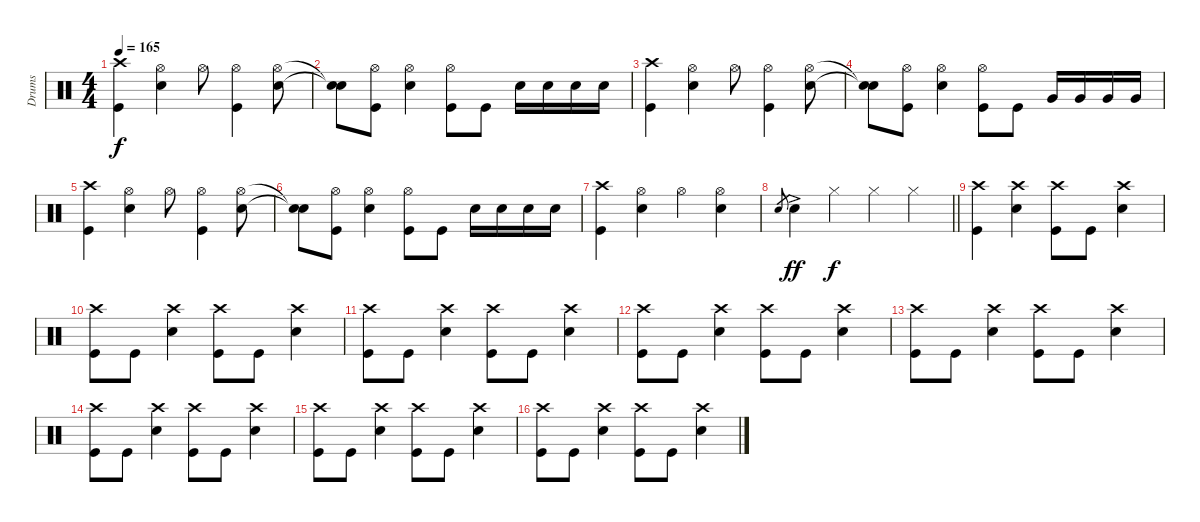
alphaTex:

\track ("Drums" "Drums") {instrument percussion}
\staff {score}
\articulation defaults
\ts (4 4)
\tempo 165
\clef neutral
\ks c
("Crash high (hit)" "Kick (hit)").4{dy f} ("Hi-Hat (open)" "Snare (hit) 2").4 "Hi-Hat (open)".8 ("Hi-Hat (open)" "Kick (hit)").4 ("Hi-Hat (open)" "Snare (hit) 2").8 |
("Snare (hit)"{t} "Snare (hit)"{t}).8 ("Hi-Hat (open)" "Kick (hit)").8 ("Hi-Hat (open)" "Snare (hit) 2").4 ("Hi-Hat (open)" "Kick (hit)").8 "Kick (hit)".8 "Snare (hit) 2".16 "Snare (hit) 2".16 "Snare (hit) 2".16 "Snare (hit) 2".16 |
("Crash high (hit)" "Kick (hit)").4 ("Hi-Hat (open)" "Snare (hit) 2").4 "Hi-Hat (open)".8 ("Hi-Hat (open)" "Kick (hit)").4 ("Hi-Hat (open)" "Snare (hit) 2").8 |
("Snare (hit)"{t} "Snare (hit)"{t}).8 ("Hi-Hat (open)" "Kick (hit)").8 ("Hi-Hat (open)" "Snare (hit) 2").4 ("Hi-Hat (open)" "Kick (hit)").8 "Kick (hit)".8 "Very Low Tom (hit)".16 "Very Low Tom (hit)".16 "Very Low Tom (hit)".16 "Very Low Tom (hit)".16 |
("Crash high (hit)" "Kick (hit)").4 ("Hi-Hat (open)" "Snare (hit) 2").4 "Hi-Hat (open)".8 ("Hi-Hat (open)" "Kick (hit)").4 ("Hi-Hat (open)" "Snare (hit) 2").8 |
("Snare (hit)"{t} "Snare (hit)"{t}).8 ("Hi-Hat (open)" "Kick (hit)").8 ("Hi-Hat (open)" "Snare (hit) 2").4 ("Hi-Hat (open)" "Kick (hit)").8 "Kick (hit)".8 "Snare (hit) 2".16 "Snare (hit) 2".16 "Snare (hit) 2".16 "Snare (hit) 2".16 |
("Crash high (hit)" "Kick (hit)").4 ("Hi-Hat (open)" "Snare (hit) 2").4 "Hi-Hat (open)".4 ("Hi-Hat (open)" "Snare (hit) 2").4 |
\barLineRight lightlight "Snare (hit) 2".8{gr} "Snare (hit) 2"{ac}.4{dy ff} "Hi-Hat (closed)".4{dy f} "Hi-Hat (closed)".4 "Hi-Hat (closed)".4
|
("Crash high (hit)" "Kick (hit)").4 ("Crash high (hit)" "Snare (hit) 2").4 ("Crash high (hit)" "Kick (hit)").8 "Kick (hit)".8 ("Crash high (hit)" "Snare (hit) 2").4 |
("Crash high (hit)" "Kick (hit)").8 "Kick (hit)".8 ("Crash high (hit)" "Snare (hit) 2").4 ("Crash high (hit)" "Kick (hit)").8 "Kick (hit)".8 ("Crash high (hit)" "Snare (hit) 2").4 |
("Crash high (hit)" "Kick (hit)").8 "Kick (hit)".8 ("Crash high (hit)" "Snare (hit) 2").4 ("Crash high (hit)" "Kick (hit)").8 "Kick (hit)".8 ("Crash high (hit)" "Snare (hit) 2").4 |
("Crash high (hit)" "Kick (hit)").8 "Kick (hit)".8 ("Crash high (hit)" "Snare (hit) 2").4 ("Crash high (hit)" "Kick (hit)").8 "Kick (hit)".8 ("Crash high (hit)" "Snare (hit) 2").4 |
("Crash high (hit)" "Kick (hit)").8 "Kick (hit)".8 ("Crash high (hit)" "Snare (hit) 2").4 ("Crash high (hit)" "Kick (hit)").8 "Kick (hit)".8 ("Crash high (hit)" "Snare (hit) 2").4 |
("Crash high (hit)" "Kick (hit)").8 "Kick (hit)".8 ("Crash high (hit)" "Snare (hit) 2").4 ("Crash high (hit)" "Kick (hit)").8 "Kick (hit)".8 ("Crash high (hit)" "Snare (hit) 2").4 |
("Crash high (hit)" "Kick (hit)").8 "Kick (hit)".8 ("Crash high (hit)" "Snare (hit) 2").4 ("Crash high (hit)" "Kick (hit)").8 "Kick (hit)".8 ("Crash high (hit)" "Snare (hit) 2").4 |
("Crash high (hit)" "Kick (hit)").8 "Kick (hit)".8 ("Crash high (hit)" "Snare (hit) 2").4 ("Crash high (hit)" "Kick (hit)").8 "Kick (hit)".8 ("Crash high (hit)" "Snare (hit) 2").4
